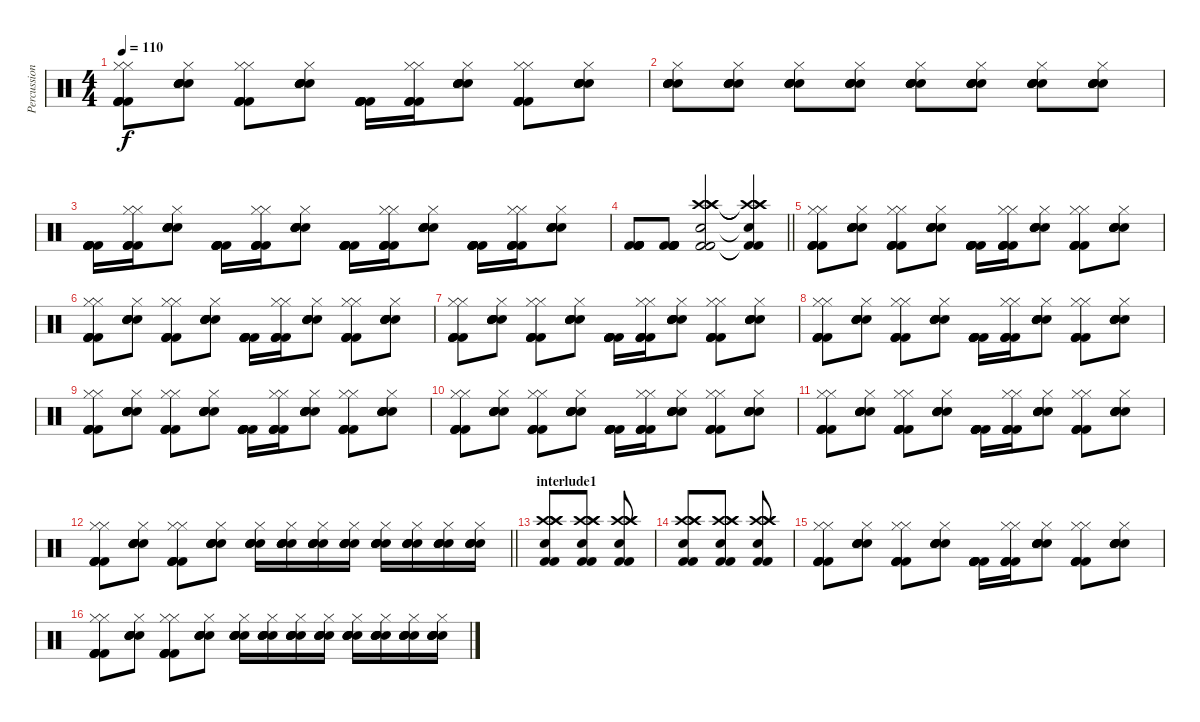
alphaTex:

\track ("Percussion" "Percussion") {instrument percussion}
\staff {score}
\articulation defaults
\ts (4 4)
\tempo 110
\clef neutral
\ks c
("Kick (hit) 2" "Kick (hit) 2" "Kick (hit) 2" "Kick (hit) 2" "Hi-Hat (closed)" "Hi-Hat (closed)").8{dy f} ("Snare (hit) 2" "Snare (hit) 2" "Snare (hit) 2" "Snare (hit) 2" "Snare (hit) 2" "Hi-Hat (closed)").8 ("Kick (hit) 2" "Kick (hit) 2" "Kick (hit) 2" "Kick (hit) 2" "Hi-Hat (closed)" "Hi-Hat (closed)").8 ("Snare (hit) 2" "Snare (hit) 2" "Snare (hit) 2" "Snare (hit) 2" "Snare (hit) 2" "Hi-Hat (closed)").8 ("Kick (hit) 2" "Kick (hit) 2" "Kick (hit) 2" "Kick (hit) 2" "Kick (hit) 2" "Kick (hit) 2").16 ("Kick (hit) 2" "Kick (hit) 2" "Kick (hit) 2" "Kick (hit) 2" "Hi-Hat (closed)" "Hi-Hat (closed)").16 ("Snare (hit) 2" "Snare (hit) 2" "Snare (hit) 2" "Snare (hit) 2" "Snare (hit) 2" "Hi-Hat (closed)").8 ("Kick (hit) 2" "Kick (hit) 2" "Kick (hit) 2" "Kick (hit) 2" "Hi-Hat (closed)" "Hi-Hat (closed)").8 ("Snare (hit) 2" "Snare (hit) 2" "Snare (hit) 2" "Snare (hit) 2" "Snare (hit) 2" "Hi-Hat (closed)").8 |
("Snare (hit) 2" "Snare (hit) 2" "Snare (hit) 2" "Snare (hit) 2" "Snare (hit) 2" "Hi-Hat (closed)").8 ("Snare (hit) 2" "Snare (hit) 2" "Snare (hit) 2" "Snare (hit) 2" "Snare (hit) 2" "Hi-Hat (closed)").8 ("Snare (hit) 2" "Snare (hit) 2" "Snare (hit) 2" "Snare (hit) 2" "Snare (hit) 2" "Hi-Hat (closed)").8 ("Snare (hit) 2" "Snare (hit) 2" "Snare (hit) 2" "Snare (hit) 2" "Snare (hit) 2" "Hi-Hat (closed)").8 ("Snare (hit) 2" "Snare (hit) 2" "Snare (hit) 2" "Snare (hit) 2" "Snare (hit) 2" "Hi-Hat (closed)").8 ("Snare (hit) 2" "Snare (hit) 2" "Snare (hit) 2" "Snare (hit) 2" "Snare (hit) 2" "Hi-Hat (closed)").8 ("Snare (hit) 2" "Snare (hit) 2" "Snare (hit) 2" "Snare (hit) 2" "Snare (hit) 2" "Hi-Hat (closed)").8 ("Snare (hit) 2" "Snare (hit) 2" "Snare (hit) 2" "Snare (hit) 2" "Snare (hit) 2" "Hi-Hat (closed)").8 |
("Kick (hit) 2" "Kick (hit) 2" "Kick (hit) 2" "Kick (hit) 2" "Kick (hit) 2" "Kick (hit) 2").16 ("Kick (hit) 2" "Kick (hit) 2" "Kick (hit) 2" "Kick (hit) 2" "Hi-Hat (closed)" "Hi-Hat (closed)").16 ("Snare (hit) 2" "Snare (hit) 2" "Snare (hit) 2" "Snare (hit) 2" "Snare (hit) 2" "Hi-Hat (closed)").8 ("Kick (hit) 2" "Kick (hit) 2" "Kick (hit) 2" "Kick (hit) 2" "Kick (hit) 2" "Kick (hit) 2").16 ("Kick (hit) 2" "Kick (hit) 2" "Kick (hit) 2" "Kick (hit) 2" "Hi-Hat (closed)" "Hi-Hat (closed)").16 ("Snare (hit) 2" "Snare (hit) 2" "Snare (hit) 2" "Snare (hit) 2" "Snare (hit) 2" "Hi-Hat (closed)").8 ("Kick (hit) 2" "Kick (hit) 2" "Kick (hit) 2" "Kick (hit) 2" "Kick (hit) 2" "Kick (hit) 2").16 ("Kick (hit) 2" "Kick (hit) 2" "Kick (hit) 2" "Kick (hit) 2" "Hi-Hat (closed)" "Hi-Hat (closed)").16 ("Snare (hit) 2" "Snare (hit) 2" "Snare (hit) 2" "Snare (hit) 2" "Snare (hit) 2" "Hi-Hat (closed)").8 ("Kick (hit) 2" "Kick (hit) 2" "Kick (hit) 2" "Kick (hit) 2" "Kick (hit) 2" "Kick (hit) 2").16 ("Kick (hit) 2" "Kick (hit) 2" "Kick (hit) 2" "Kick (hit) 2" "Hi-Hat (closed)" "Hi-Hat (closed)").16 ("Snare (hit) 2" "Snare (hit) 2" "Snare (hit) 2" "Snare (hit) 2" "Snare (hit) 2" "Hi-Hat (closed)").8 |
\barLineRight lightlight
("Kick (hit) 2" "Kick (hit) 2" "Kick (hit) 2" "Kick (hit) 2" "Kick (hit) 2" "Kick (hit) 2").8 ("Kick (hit) 2" "Kick (hit) 2" "Kick (hit) 2" "Kick (hit) 2" "Kick (hit) 2" "Kick (hit) 2").8 ("Crash high (hit)" "Crash high (hit)" "Crash high (hit)" "Hand Clap (hit)" "Kick (hit) 2" "Kick (hit) 2").2 ("Crash high (hit)"{t} "Crash high (hit)"{t} "Crash high (hit)"{t} "Hand Clap (hit)"{t} "Kick (hit) 2"{t} "Kick (hit) 2"{t}).4 |
("Kick (hit) 2" "Kick (hit) 2" "Kick (hit) 2" "Kick (hit) 2" "Hi-Hat (closed)" "Hi-Hat (closed)").8 ("Snare (hit) 2" "Snare (hit) 2" "Snare (hit) 2" "Snare (hit) 2" "Snare (hit) 2" "Hi-Hat (closed)").8 ("Kick (hit) 2" "Kick (hit) 2" "Kick (hit) 2" "Kick (hit) 2" "Hi-Hat (closed)" "Hi-Hat (closed)").8 ("Snare (hit) 2" "Snare (hit) 2" "Snare (hit) 2" "Snare (hit) 2" "Snare (hit) 2" "Hi-Hat (closed)").8 ("Kick (hit) 2" "Kick (hit) 2" "Kick (hit) 2" "Kick (hit) 2" "Kick (hit) 2" "Kick (hit) 2").16 ("Kick (hit) 2" "Kick (hit) 2" "Kick (hit) 2" "Kick (hit) 2" "Hi-Hat (closed)" "Hi-Hat (closed)").16 ("Snare (hit) 2" "Snare (hit) 2" "Snare (hit) 2" "Snare (hit) 2" "Snare (hit) 2" "Hi-Hat (closed)").8 ("Kick (hit) 2" "Kick (hit) 2" "Kick (hit) 2" "Kick (hit) 2" "Hi-Hat (closed)" "Hi-Hat (closed)").8 ("Snare (hit) 2" "Snare (hit) 2" "Snare (hit) 2" "Snare (hit) 2" "Snare (hit) 2" "Hi-Hat (closed)").8 |
("Kick (hit) 2" "Kick (hit) 2" "Kick (hit) 2" "Kick (hit) 2" "Hi-Hat (closed)" "Hi-Hat (closed)").8 ("Snare (hit) 2" "Snare (hit) 2" "Snare (hit) 2" "Snare (hit) 2" "Snare (hit) 2" "Hi-Hat (closed)").8 ("Kick (hit) 2" "Kick (hit) 2" "Kick (hit) 2" "Kick (hit) 2" "Hi-Hat (closed)" "Hi-Hat (closed)").8 ("Snare (hit) 2" "Snare (hit) 2" "Snare (hit) 2" "Snare (hit) 2" "Snare (hit) 2" "Hi-Hat (closed)").8 ("Kick (hit) 2" "Kick (hit) 2" "Kick (hit) 2" "Kick (hit) 2" "Kick (hit) 2" "Kick (hit) 2").16 ("Kick (hit) 2" "Kick (hit) 2" "Kick (hit) 2" "Kick (hit) 2" "Hi-Hat (closed)" "Hi-Hat (closed)").16 ("Snare (hit) 2" "Snare (hit) 2" "Snare (hit) 2" "Snare (hit) 2" "Snare (hit) 2" "Hi-Hat (closed)").8 ("Kick (hit) 2" "Kick (hit) 2" "Kick (hit) 2" "Kick (hit) 2" "Hi-Hat (closed)" "Hi-Hat (closed)").8 ("Snare (hit) 2" "Snare (hit) 2" "Snare (hit) 2" "Snare (hit) 2" "Snare (hit) 2" "Hi-Hat (closed)").8 |
("Kick (hit) 2" "Kick (hit) 2" "Kick (hit) 2" "Kick (hit) 2" "Hi-Hat (closed)" "Hi-Hat (closed)").8 ("Snare (hit) 2" "Snare (hit) 2" "Snare (hit) 2" "Snare (hit) 2" "Snare (hit) 2" "Hi-Hat (closed)").8 ("Kick (hit) 2" "Kick (hit) 2" "Kick (hit) 2" "Kick (hit) 2" "Hi-Hat (closed)" "Hi-Hat (closed)").8 ("Snare (hit) 2" "Snare (hit) 2" "Snare (hit) 2" "Snare (hit) 2" "Snare (hit) 2" "Hi-Hat (closed)").8 ("Kick (hit) 2" "Kick (hit) 2" "Kick (hit) 2" "Kick (hit) 2" "Kick (hit) 2" "Kick (hit) 2").16 ("Kick (hit) 2" "Kick (hit) 2" "Kick (hit) 2" "Kick (hit) 2" "Hi-Hat (closed)" "Hi-Hat (closed)").16 ("Snare (hit) 2" "Snare (hit) 2" "Snare (hit) 2" "Snare (hit) 2" "Snare (hit) 2" "Hi-Hat (closed)").8 ("Kick (hit) 2" "Kick (hit) 2" "Kick (hit) 2" "Kick (hit) 2" "Hi-Hat (closed)" "Hi-Hat (closed)").8 ("Snare (hit) 2" "Snare (hit) 2" "Snare (hit) 2" "Snare (hit) 2" "Snare (hit) 2" "Hi-Hat (closed)").8 |
("Kick (hit) 2" "Kick (hit) 2" "Kick (hit) 2" "Kick (hit) 2" "Hi-Hat (closed)" "Hi-Hat (closed)").8 ("Snare (hit) 2" "Snare (hit) 2" "Snare (hit) 2" "Snare (hit) 2" "Snare (hit) 2" "Hi-Hat (closed)").8 ("Kick (hit) 2" "Kick (hit) 2" "Kick (hit) 2" "Kick (hit) 2" "Hi-Hat (closed)" "Hi-Hat (closed)").8 ("Snare (hit) 2" "Snare (hit) 2" "Snare (hit) 2" "Snare (hit) 2" "Snare (hit) 2" "Hi-Hat (closed)").8 ("Kick (hit) 2" "Kick (hit) 2" "Kick (hit) 2" "Kick (hit) 2" "Kick (hit) 2" "Kick (hit) 2").16 ("Kick (hit) 2" "Kick (hit) 2" "Kick (hit) 2" "Kick (hit) 2" "Hi-Hat (closed)" "Hi-Hat (closed)").16 ("Snare (hit) 2" "Snare (hit) 2" "Snare (hit) 2" "Snare (hit) 2" "Snare (hit) 2" "Hi-Hat (closed)").8 ("Kick (hit) 2" "Kick (hit) 2" "Kick (hit) 2" "Kick (hit) 2" "Hi-Hat (closed)" "Hi-Hat (closed)").8 ("Snare (hit) 2" "Snare (hit) 2" "Snare (hit) 2" "Snare (hit) 2" "Snare (hit) 2" "Hi-Hat (closed)").8 |
("Kick (hit) 2" "Kick (hit) 2" "Kick (hit) 2" "Kick (hit) 2" "Hi-Hat (closed)" "Hi-Hat (closed)").8 ("Snare (hit) 2" "Snare (hit) 2" "Snare (hit) 2" "Snare (hit) 2" "Snare (hit) 2" "Hi-Hat (closed)").8 ("Kick (hit) 2" "Kick (hit) 2" "Kick (hit) 2" "Kick (hit) 2" "Hi-Hat (closed)" "Hi-Hat (closed)").8 ("Snare (hit) 2" "Snare (hit) 2" "Snare (hit) 2" "Snare (hit) 2" "Snare (hit) 2" "Hi-Hat (closed)").8 ("Kick (hit) 2" "Kick (hit) 2" "Kick (hit) 2" "Kick (hit) 2" "Kick (hit) 2" "Kick (hit) 2").16 ("Kick (hit) 2" "Kick (hit) 2" "Kick (hit) 2" "Kick (hit) 2" "Hi-Hat (closed)" "Hi-Hat (closed)").16 ("Snare (hit) 2" "Snare (hit) 2" "Snare (hit) 2" "Snare (hit) 2" "Snare (hit) 2" "Hi-Hat (closed)").8 ("Kick (hit) 2" "Kick (hit) 2" "Kick (hit) 2" "Kick (hit) 2" "Hi-Hat (closed)" "Hi-Hat (closed)").8 ("Snare (hit) 2" "Snare (hit) 2" "Snare (hit) 2" "Snare (hit) 2" "Snare (hit) 2" "Hi-Hat (closed)").8 |
("Kick (hit) 2" "Kick (hit) 2" "Kick (hit) 2" "Kick (hit) 2" "Hi-Hat (closed)" "Hi-Hat (closed)").8 ("Snare (hit) 2" "Snare (hit) 2" "Snare (hit) 2" "Snare (hit) 2" "Snare (hit) 2" "Hi-Hat (closed)").8 ("Kick (hit) 2" "Kick (hit) 2" "Kick (hit) 2" "Kick (hit) 2" "Hi-Hat (closed)" "Hi-Hat (closed)").8 ("Snare (hit) 2" "Snare (hit) 2" "Snare (hit) 2" "Snare (hit) 2" "Snare (hit) 2" "Hi-Hat (closed)").8 ("Kick (hit) 2" "Kick (hit) 2" "Kick (hit) 2" "Kick (hit) 2" "Kick (hit) 2" "Kick (hit) 2").16 ("Kick (hit) 2" "Kick (hit) 2" "Kick (hit) 2" "Kick (hit) 2" "Hi-Hat (closed)" "Hi-Hat (closed)").16 ("Snare (hit) 2" "Snare (hit) 2" "Snare (hit) 2" "Snare (hit) 2" "Snare (hit) 2" "Hi-Hat (closed)").8 ("Kick (hit) 2" "Kick (hit) 2" "Kick (hit) 2" "Kick (hit) 2" "Hi-Hat (closed)" "Hi-Hat (closed)").8 ("Snare (hit) 2" "Snare (hit) 2" "Snare (hit) 2" "Snare (hit) 2" "Snare (hit) 2" "Hi-Hat (closed)").8 |
("Kick (hit) 2" "Kick (hit) 2" "Kick (hit) 2" "Kick (hit) 2" "Hi-Hat (closed)" "Hi-Hat (closed)").8 ("Snare (hit) 2" "Snare (hit) 2" "Snare (hit) 2" "Snare (hit) 2" "Snare (hit) 2" "Hi-Hat (closed)").8 ("Kick (hit) 2" "Kick (hit) 2" "Kick (hit) 2" "Kick (hit) 2" "Hi-Hat (closed)" "Hi-Hat (closed)").8 ("Snare (hit) 2" "Snare (hit) 2" "Snare (hit) 2" "Snare (hit) 2" "Snare (hit) 2" "Hi-Hat (closed)").8 ("Kick (hit) 2" "Kick (hit) 2" "Kick (hit) 2" "Kick (hit) 2" "Kick (hit) 2" "Kick (hit) 2").16 ("Kick (hit) 2" "Kick (hit) 2" "Kick (hit) 2" "Kick (hit) 2" "Hi-Hat (closed)" "Hi-Hat (closed)").16 ("Snare (hit) 2" "Snare (hit) 2" "Snare (hit) 2" "Snare (hit) 2" "Snare (hit) 2" "Hi-Hat (closed)").8 ("Kick (hit) 2" "Kick (hit) 2" "Kick (hit) 2" "Kick (hit) 2" "Hi-Hat (closed)" "Hi-Hat (closed)").8 ("Snare (hit) 2" "Snare (hit) 2" "Snare (hit) 2" "Snare (hit) 2" "Snare (hit) 2" "Hi-Hat (closed)").8 |
\barLineRight lightlight
("Kick (hit) 2" "Kick (hit) 2" "Kick (hit) 2" "Kick (hit) 2" "Hi-Hat (closed)" "Hi-Hat (closed)").8 ("Snare (hit) 2" "Snare (hit) 2" "Snare (hit) 2" "Snare (hit) 2" "Snare (hit) 2" "Hi-Hat (closed)").8 ("Kick (hit) 2" "Kick (hit) 2" "Kick (hit) 2" "Kick (hit) 2" "Hi-Hat (closed)" "Hi-Hat (closed)").8 ("Snare (hit) 2" "Snare (hit) 2" "Snare (hit) 2" "Snare (hit) 2" "Snare (hit) 2" "Hi-Hat (closed)").8 ("Snare (hit) 2" "Snare (hit) 2" "Snare (hit) 2" "Snare (hit) 2" "Snare (hit) 2" "Hi-Hat (closed)").16 ("Snare (hit) 2" "Snare (hit) 2" "Snare (hit) 2" "Snare (hit) 2" "Snare (hit) 2" "Hi-Hat (closed)").16 ("Snare (hit) 2" "Snare (hit) 2" "Snare (hit) 2" "Snare (hit) 2" "Snare (hit) 2" "Hi-Hat (closed)").16 ("Snare (hit) 2" "Snare (hit) 2" "Snare (hit) 2" "Snare (hit) 2" "Snare (hit) 2" "Hi-Hat (closed)").16 ("Snare (hit) 2" "Snare (hit) 2" "Snare (hit) 2" "Snare (hit) 2" "Snare (hit) 2" "Hi-Hat (closed)").16 ("Snare (hit) 2" "Snare (hit) 2" "Snare (hit) 2" "Snare (hit) 2" "Snare (hit) 2" "Hi-Hat (closed)").16 ("Snare (hit) 2" "Snare (hit) 2" "Snare (hit) 2" "Snare (hit) 2" "Snare (hit) 2" "Hi-Hat (closed)").16 ("Snare (hit) 2" "Snare (hit) 2" "Snare (hit) 2" "Snare (hit) 2" "Snare (hit) 2" "Hi-Hat (closed)").16 |
\section ("" "interlude1")
("Crash high (hit)" "Crash high (hit)" "Crash high (hit)" "Hand Clap (hit)" "Kick (hit) 2" "Kick (hit) 2").8 ("Crash high (hit)" "Crash high (hit)" "Crash high (hit)" "Hand Clap (hit)" "Kick (hit) 2" "Kick (hit) 2").8 ("Crash high (hit)" "Crash high (hit)" "Crash high (hit)" "Hand Clap (hit)" "Kick (hit) 2" "Kick (hit) 2").8 |
("Crash high (hit)" "Crash high (hit)" "Crash high (hit)" "Hand Clap (hit)" "Kick (hit) 2" "Kick (hit) 2").8 ("Crash high (hit)" "Crash high (hit)" "Crash high (hit)" "Hand Clap (hit)" "Kick (hit) 2" "Kick (hit) 2").8 ("Crash high (hit)" "Crash high (hit)" "Crash high (hit)" "Hand Clap (hit)" "Kick (hit) 2" "Kick (hit) 2").8 |
("Kick (hit) 2" "Kick (hit) 2" "Kick (hit) 2" "Kick (hit) 2" "Hi-Hat (closed)" "Hi-Hat (closed)").8 ("Snare (hit) 2" "Snare (hit) 2" "Snare (hit) 2" "Snare (hit) 2" "Snare (hit) 2" "Hi-Hat (closed)").8 ("Kick (hit) 2" "Kick (hit) 2" "Kick (hit) 2" "Kick (hit) 2" "Hi-Hat (closed)" "Hi-Hat (closed)").8 ("Snare (hit) 2" "Snare (hit) 2" "Snare (hit) 2" "Snare (hit) 2" "Snare (hit) 2" "Hi-Hat (closed)").8 ("Kick (hit) 2" "Kick (hit) 2" "Kick (hit) 2" "Kick (hit) 2" "Kick (hit) 2" "Kick (hit) 2").16 ("Kick (hit) 2" "Kick (hit) 2" "Kick (hit) 2" "Kick (hit) 2" "Hi-Hat (closed)" "Hi-Hat (closed)").16 ("Snare (hit) 2" "Snare (hit) 2" "Snare (hit) 2" "Snare (hit) 2" "Snare (hit) 2" "Hi-Hat (closed)").8 ("Kick (hit) 2" "Kick (hit) 2" "Kick (hit) 2" "Kick (hit) 2" "Hi-Hat (closed)" "Hi-Hat (closed)").8 ("Snare (hit) 2" "Snare (hit) 2" "Snare (hit) 2" "Snare (hit) 2" "Snare (hit) 2" "Hi-Hat (closed)").8 |
("Kick (hit) 2" "Kick (hit) 2" "Kick (hit) 2" "Kick (hit) 2" "Hi-Hat (closed)" "Hi-Hat (closed)").8 ("Snare (hit) 2" "Snare (hit) 2" "Snare (hit) 2" "Snare (hit) 2" "Snare (hit) 2" "Hi-Hat (closed)").8 ("Kick (hit) 2" "Kick (hit) 2" "Kick (hit) 2" "Kick (hit) 2" "Hi-Hat (closed)" "Hi-Hat (closed)").8 ("Snare (hit) 2" "Snare (hit) 2" "Snare (hit) 2" "Snare (hit) 2" "Snare (hit) 2" "Hi-Hat (closed)").8 ("Snare (hit) 2" "Snare (hit) 2" "Snare (hit) 2" "Snare (hit) 2" "Snare (hit) 2" "Hi-Hat (closed)").16 ("Snare (hit) 2" "Snare (hit) 2" "Snare (hit) 2" "Snare (hit) 2" "Snare (hit) 2" "Hi-Hat (closed)").16 ("Snare (hit) 2" "Snare (hit) 2" "Snare (hit) 2" "Snare (hit) 2" "Snare (hit) 2" "Hi-Hat (closed)").16 ("Snare (hit) 2" "Snare (hit) 2" "Snare (hit) 2" "Snare (hit) 2" "Snare (hit) 2" "Hi-Hat (closed)").16 ("Snare (hit) 2" "Snare (hit) 2" "Snare (hit) 2" "Snare (hit) 2" "Snare (hit) 2" "Hi-Hat (closed)").16 ("Snare (hit) 2" "Snare (hit) 2" "Snare (hit) 2" "Snare (hit) 2" "Snare (hit) 2" "Hi-Hat (closed)").16 ("Snare (hit) 2" "Snare (hit) 2" "Snare (hit) 2" "Snare (hit) 2" "Snare (hit) 2" "Hi-Hat (closed)").16 ("Snare (hit) 2" "Snare (hit) 2" "Snare (hit) 2" "Snare (hit) 2" "Snare (hit) 2" "Hi-Hat (closed)").16
